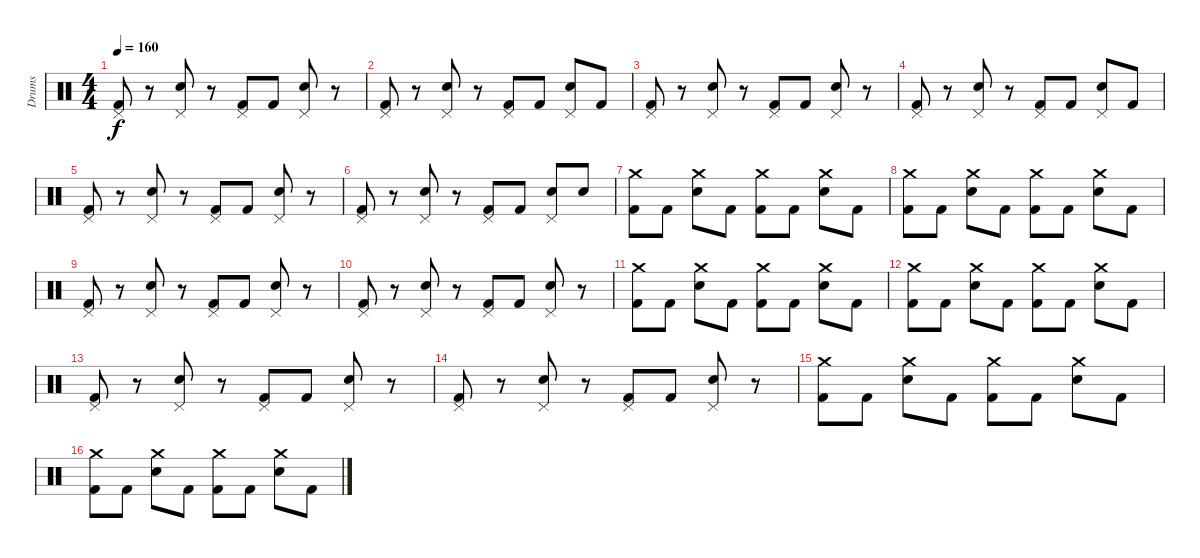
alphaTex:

\track ("Drums" "Drums") {instrument percussion}
\staff {score}
\articulation defaults
\ts (4 4)
\tempo 160
\clef neutral
\ks c
("Pedal Hi-Hat (hit)" "Kick (hit) 2").8{dy f} r.8 ("Pedal Hi-Hat (hit)" "Snare (hit) 2").8 r.8 ("Pedal Hi-Hat (hit)" "Kick (hit) 2").8 "Kick (hit) 2".8 ("Pedal Hi-Hat (hit)" "Snare (hit) 2").8 r.8 |
("Pedal Hi-Hat (hit)" "Kick (hit) 2").8 r.8 ("Pedal Hi-Hat (hit)" "Snare (hit) 2").8 r.8 ("Pedal Hi-Hat (hit)" "Kick (hit) 2").8 "Kick (hit) 2".8 ("Pedal Hi-Hat (hit)" "Snare (hit) 2").8 "Kick (hit) 2".8 |
("Pedal Hi-Hat (hit)" "Kick (hit) 2").8 r.8 ("Pedal Hi-Hat (hit)" "Snare (hit) 2").8 r.8 ("Pedal Hi-Hat (hit)" "Kick (hit) 2").8 "Kick (hit) 2".8 ("Pedal Hi-Hat (hit)" "Snare (hit) 2").8 r.8 |
("Pedal Hi-Hat (hit)" "Kick (hit) 2").8 r.8 ("Pedal Hi-Hat (hit)" "Snare (hit) 2").8 r.8 ("Pedal Hi-Hat (hit)" "Kick (hit) 2").8 "Kick (hit) 2".8 ("Pedal Hi-Hat (hit)" "Snare (hit) 2").8 "Kick (hit) 2".8 |
("Pedal Hi-Hat (hit)" "Kick (hit) 2").8 r.8 ("Pedal Hi-Hat (hit)" "Snare (hit) 2").8 r.8 ("Pedal Hi-Hat (hit)" "Kick (hit) 2").8 "Kick (hit) 2".8 ("Pedal Hi-Hat (hit)" "Snare (hit) 2").8 r.8 |
("Pedal Hi-Hat (hit)" "Kick (hit) 2").8 r.8 ("Pedal Hi-Hat (hit)" "Snare (hit) 2").8 r.8 ("Pedal Hi-Hat (hit)" "Kick (hit) 2").8 "Kick (hit) 2".8 ("Pedal Hi-Hat (hit)" "Snare (hit) 2").8 "Snare (hit) 2".8 |
("Crash medium (hit)" "Kick (hit) 2").8 "Kick (hit) 2".8 ("Crash medium (hit)" "Snare (hit) 2").8 "Kick (hit) 2".8 ("Crash medium (hit)" "Kick (hit) 2").8 "Kick (hit) 2".8 ("Crash medium (hit)" "Snare (hit) 2").8 "Kick (hit) 2".8 |
("Crash medium (hit)" "Kick (hit) 2").8 "Kick (hit) 2".8 ("Crash medium (hit)" "Snare (hit) 2").8 "Kick (hit) 2".8 ("Crash medium (hit)" "Kick (hit) 2").8 "Kick (hit) 2".8 ("Crash medium (hit)" "Snare (hit) 2").8 "Kick (hit) 2".8 |
("Pedal Hi-Hat (hit)" "Kick (hit) 2").8 r.8 ("Pedal Hi-Hat (hit)" "Snare (hit) 2").8 r.8 ("Pedal Hi-Hat (hit)" "Kick (hit) 2").8 "Kick (hit) 2".8 ("Pedal Hi-Hat (hit)" "Snare (hit) 2").8 r.8 |
("Pedal Hi-Hat (hit)" "Kick (hit) 2").8 r.8 ("Pedal Hi-Hat (hit)" "Snare (hit) 2").8 r.8 ("Pedal Hi-Hat (hit)" "Kick (hit) 2").8 "Kick (hit) 2".8 ("Pedal Hi-Hat (hit)" "Snare (hit) 2").8 r.8 |
("Crash medium (hit)" "Kick (hit) 2").8 "Kick (hit) 2".8 ("Crash medium (hit)" "Snare (hit) 2").8 "Kick (hit) 2".8 ("Crash medium (hit)" "Kick (hit) 2").8 "Kick (hit) 2".8 ("Crash medium (hit)" "Snare (hit) 2").8 "Kick (hit) 2".8 |
("Crash medium (hit)" "Kick (hit) 2").8 "Kick (hit) 2".8 ("Crash medium (hit)" "Snare (hit) 2").8 "Kick (hit) 2".8 ("Crash medium (hit)" "Kick (hit) 2").8 "Kick (hit) 2".8 ("Crash medium (hit)" "Snare (hit) 2").8 "Kick (hit) 2".8 |
("Pedal Hi-Hat (hit)" "Kick (hit) 2").8 r.8 ("Pedal Hi-Hat (hit)" "Snare (hit) 2").8 r.8 ("Pedal Hi-Hat (hit)" "Kick (hit) 2").8 "Kick (hit) 2".8 ("Pedal Hi-Hat (hit)" "Snare (hit) 2").8 r.8 |
("Pedal Hi-Hat (hit)" "Kick (hit) 2").8 r.8 ("Pedal Hi-Hat (hit)" "Snare (hit) 2").8 r.8 ("Pedal Hi-Hat (hit)" "Kick (hit) 2").8 "Kick (hit) 2".8 ("Pedal Hi-Hat (hit)" "Snare (hit) 2").8 r.8 |
("Crash medium (hit)" "Kick (hit) 2").8 "Kick (hit) 2".8 ("Crash medium (hit)" "Snare (hit) 2").8 "Kick (hit) 2".8 ("Crash medium (hit)" "Kick (hit) 2").8 "Kick (hit) 2".8 ("Crash medium (hit)" "Snare (hit) 2").8 "Kick (hit) 2".8 |
("Crash medium (hit)" "Kick (hit) 2").8 "Kick (hit) 2".8 ("Crash medium (hit)" "Snare (hit) 2").8 "Kick (hit) 2".8 ("Crash medium (hit)" "Kick (hit) 2").8 "Kick (hit) 2".8 ("Crash medium (hit)" "Snare (hit) 2").8 "Kick (hit) 2".8
